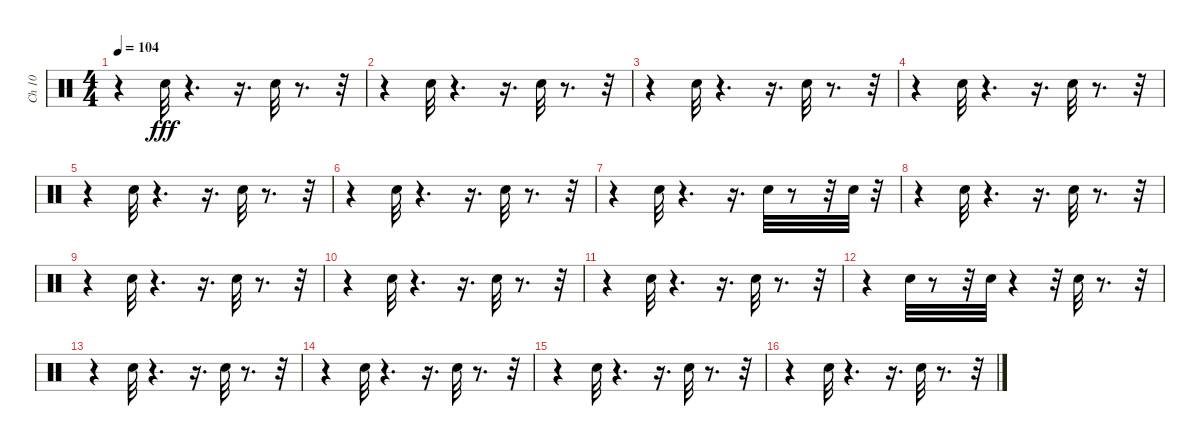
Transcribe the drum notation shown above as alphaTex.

\track ("Ch 10   " "Ch 10   ") {instrument percussion}
\staff {score}
\articulation defaults
\ts (4 4)
\tempo 104
\clef neutral
\ks c
r.4{dy fff} "Snare (hit) 2".32 r.4{d} r.16{d} "Snare (hit) 2".32 r.8{d} r.32 |
r.4 "Snare (hit) 2".32 r.4{d} r.16{d} "Snare (hit) 2".32 r.8{d} r.32 |
r.4 "Snare (hit) 2".32 r.4{d} r.16{d} "Snare (hit) 2".32 r.8{d} r.32 |
r.4 "Snare (hit) 2".32 r.4{d} r.16{d} "Snare (hit) 2".32 r.8{d} r.32 |
r.4 "Snare (hit) 2".32 r.4{d} r.16{d} "Snare (hit) 2".32 r.8{d} r.32 |
r.4 "Snare (hit) 2".32 r.4{d} r.16{d} "Snare (hit) 2".32 r.8{d} r.32 |
r.4 "Snare (hit) 2".32 r.4{d} r.16{d} "Snare (hit) 2".32 r.8 r.32 "Snare (hit) 2".32 r.32 |
r.4 "Snare (hit) 2".32 r.4{d} r.16{d} "Snare (hit) 2".32 r.8{d} r.32 |
r.4 "Snare (hit) 2".32 r.4{d} r.16{d} "Snare (hit) 2".32 r.8{d} r.32 |
r.4 "Snare (hit) 2".32 r.4{d} r.16{d} "Snare (hit) 2".32 r.8{d} r.32 |
r.4 "Snare (hit) 2".32 r.4{d} r.16{d} "Snare (hit) 2".32 r.8{d} r.32 |
r.4 "Snare (hit) 2".32 r.8 r.32 "Snare (hit) 2".32 r.4 r.32 "Snare (hit) 2".32 r.8{d} r.32 |
r.4 "Snare (hit) 2".32 r.4{d} r.16{d} "Snare (hit) 2".32 r.8{d} r.32 |
r.4 "Snare (hit) 2".32 r.4{d} r.16{d} "Snare (hit) 2".32 r.8{d} r.32 |
r.4 "Snare (hit) 2".32 r.4{d} r.16{d} "Snare (hit) 2".32 r.8{d} r.32 |
r.4 "Snare (hit) 2".32 r.4{d} r.16{d} "Snare (hit) 2".32 r.8{d} r.32
